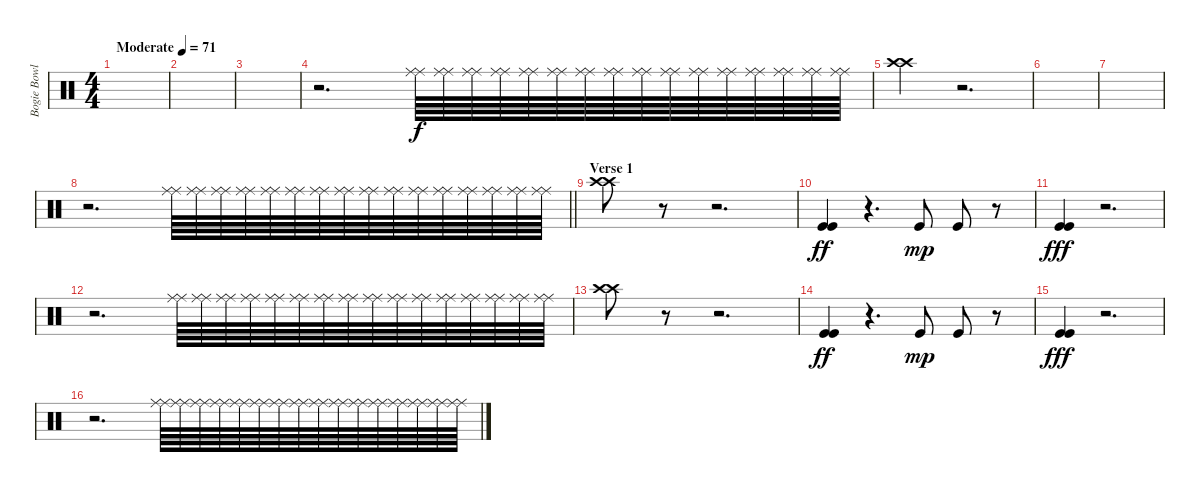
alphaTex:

\track ("Bogie Bowles" "Bogie Bowl") {instrument percussion}
\staff {score}
\articulation defaults
\ts (4 4)
\tempo (71 "Moderate")
\clef neutral
\ks c
|
|
|
r.2{d volume 0} ("Ride (middle)" "Ride (middle)").64{volume 16} ("Ride (middle)" "Ride (middle)").64 ("Ride (middle)" "Ride (middle)").64 ("Ride (middle)" "Ride (middle)").64 ("Ride (middle)" "Ride (middle)").64 ("Ride (middle)" "Ride (middle)").64 ("Ride (middle)" "Ride (middle)").64 ("Ride (middle)" "Ride (middle)").64 ("Ride (middle)" "Ride (middle)").64 ("Ride (middle)" "Ride (middle)").64 ("Ride (middle)" "Ride (middle)").64 ("Ride (middle)" "Ride (middle)").64 ("Ride (middle)" "Ride (middle)").64 ("Ride (middle)" "Ride (middle)").64 ("Ride (middle)" "Ride (middle)").64 ("Ride (middle)" "Ride (middle)").64 |
("Crash high (hit)" "Crash high (hit)").4 r.2{d volume 0} |
|
|
\barLineRight lightlight
r.2{d} ("Ride (middle)" "Ride (middle)").64{volume 16} ("Ride (middle)" "Ride (middle)").64 ("Ride (middle)" "Ride (middle)").64 ("Ride (middle)" "Ride (middle)").64 ("Ride (middle)" "Ride (middle)").64 ("Ride (middle)" "Ride (middle)").64 ("Ride (middle)" "Ride (middle)").64 ("Ride (middle)" "Ride (middle)").64 ("Ride (middle)" "Ride (middle)").64 ("Ride (middle)" "Ride (middle)").64 ("Ride (middle)" "Ride (middle)").64 ("Ride (middle)" "Ride (middle)").64 ("Ride (middle)" "Ride (middle)").64 ("Ride (middle)" "Ride (middle)").64 ("Ride (middle)" "Ride (middle)").64 ("Ride (middle)" "Ride (middle)").64 |
\section ("" "Verse 1")
("Crash high (hit)" "Crash high (hit)").8 r.8 r.2{d} |
("Kick (hit)" "Kick (hit)").4{dy ff} r.4{d} "Kick (hit)".8{dy mp} "Kick (hit)".8 r.8 |
("Kick (hit)" "Kick (hit)").4{dy fff volume 13} r.2{d} |
r.2{d} ("Ride (middle)" "Ride (middle)").64{volume 16} ("Ride (middle)" "Ride (middle)").64 ("Ride (middle)" "Ride (middle)").64 ("Ride (middle)" "Ride (middle)").64 ("Ride (middle)" "Ride (middle)").64 ("Ride (middle)" "Ride (middle)").64 ("Ride (middle)" "Ride (middle)").64 ("Ride (middle)" "Ride (middle)").64 ("Ride (middle)" "Ride (middle)").64 ("Ride (middle)" "Ride (middle)").64 ("Ride (middle)" "Ride (middle)").64 ("Ride (middle)" "Ride (middle)").64 ("Ride (middle)" "Ride (middle)").64 ("Ride (middle)" "Ride (middle)").64 ("Ride (middle)" "Ride (middle)").64 ("Ride (middle)" "Ride (middle)").64 |
("Crash high (hit)" "Crash high (hit)").8 r.8 r.2{d} |
("Kick (hit)" "Kick (hit)").4{dy ff} r.4{d} "Kick (hit)".8{dy mp} "Kick (hit)".8 r.8 |
("Kick (hit)" "Kick (hit)").4{dy fff volume 13} r.2{d} |
r.2{d} ("Ride (middle)" "Ride (middle)").64{volume 16} ("Ride (middle)" "Ride (middle)").64 ("Ride (middle)" "Ride (middle)").64 ("Ride (middle)" "Ride (middle)").64 ("Ride (middle)" "Ride (middle)").64 ("Ride (middle)" "Ride (middle)").64 ("Ride (middle)" "Ride (middle)").64 ("Ride (middle)" "Ride (middle)").64 ("Ride (middle)" "Ride (middle)").64 ("Ride (middle)" "Ride (middle)").64 ("Ride (middle)" "Ride (middle)").64 ("Ride (middle)" "Ride (middle)").64 ("Ride (middle)" "Ride (middle)").64 ("Ride (middle)" "Ride (middle)").64 ("Ride (middle)" "Ride (middle)").64 ("Ride (middle)" "Ride (middle)").64
